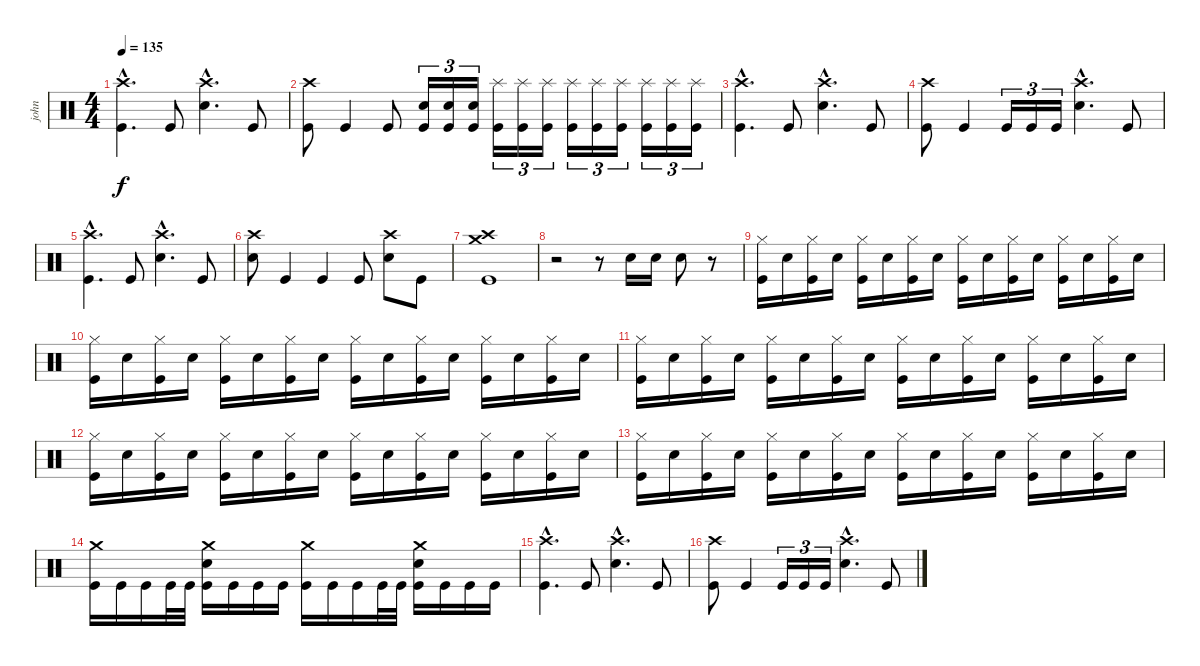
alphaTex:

\track ("john" "john") {instrument percussion}
\staff {score}
\articulation defaults
\ts (4 4)
\tempo 135
\clef neutral
\ks c
("Kick (hit)"{hac} "Crash high (hit)"{hac}).4{d dy f} "Kick (hit)".8 ("Snare (hit) 2"{hac} "Crash high (hit)"{hac}).4{d} "Kick (hit)".8 |
("Kick (hit)" "Crash high (hit)").8 "Kick (hit)".4 "Kick (hit)".8 ("Kick (hit)" "Snare (hit) 2").16{tu (3 2)} ("Kick (hit)" "Snare (hit) 2").16{tu (3 2)} ("Kick (hit)" "Snare (hit) 2").16{tu (3 2)} ("Kick (hit)" "Splash (hit)").16{tu (3 2)} ("Kick (hit)" "Splash (hit)").16{tu (3 2)} ("Kick (hit)" "Splash (hit)").16{tu (3 2)} ("Kick (hit)" "Splash (hit)").16{tu (3 2)} ("Kick (hit)" "Splash (hit)").16{tu (3 2)} ("Kick (hit)" "Splash (hit)").16{tu (3 2)} ("Kick (hit)" "Splash (hit)").16{tu (3 2)} ("Kick (hit)" "Splash (hit)").16{tu (3 2)} ("Kick (hit)" "Splash (hit)").16{tu (3 2)} |
("Kick (hit)"{hac} "Crash high (hit)"{hac}).4{d} "Kick (hit)".8 ("Snare (hit) 2"{hac} "Crash high (hit)"{hac}).4{d} "Kick (hit)".8 |
("Kick (hit)" "Crash high (hit)").8 "Kick (hit)".4 "Kick (hit)".16{tu (3 2)} "Kick (hit)".16{tu (3 2)} "Kick (hit)".16{tu (3 2)} ("Snare (hit) 2"{hac} "Crash high (hit)"{hac}).4{d} "Kick (hit)".8 |
("Kick (hit)"{hac} "Crash high (hit)"{hac}).4{d} "Kick (hit)".8 ("Snare (hit) 2"{hac} "Crash high (hit)"{hac}).4{d} "Kick (hit)".8 |
("Crash high (hit)" "Snare (hit) 2").8 "Kick (hit)".4 "Kick (hit)".4 "Kick (hit)".8 ("Crash high (hit)" "Snare (hit) 2").8 "Kick (hit)".8 |
("Crash medium (hit)" "Crash high (hit)" "Kick (hit)").1 |
r.2 r.8 "Snare (hit) 2".16 "Snare (hit) 2".16 "Snare (hit) 2".8 r.8 |
("Kick (hit)" "Hi-Hat (closed)").16 "Snare (hit) 2".16 ("Kick (hit)" "Hi-Hat (closed)").16 "Snare (hit) 2".16 ("Kick (hit)" "Hi-Hat (closed)").16 "Snare (hit) 2".16 ("Kick (hit)" "Hi-Hat (closed)").16 "Snare (hit) 2".16 ("Kick (hit)" "Hi-Hat (closed)").16 "Snare (hit) 2".16 ("Kick (hit)" "Hi-Hat (closed)").16 "Snare (hit) 2".16 ("Kick (hit)" "Hi-Hat (closed)").16 "Snare (hit) 2".16 ("Kick (hit)" "Hi-Hat (closed)").16 "Snare (hit) 2".16 |
("Kick (hit)" "Hi-Hat (closed)").16 "Snare (hit) 2".16 ("Kick (hit)" "Hi-Hat (closed)").16 "Snare (hit) 2".16 ("Kick (hit)" "Hi-Hat (closed)").16 "Snare (hit) 2".16 ("Kick (hit)" "Hi-Hat (closed)").16 "Snare (hit) 2".16 ("Kick (hit)" "Hi-Hat (closed)").16 "Snare (hit) 2".16 ("Kick (hit)" "Hi-Hat (closed)").16 "Snare (hit) 2".16 ("Kick (hit)" "Hi-Hat (closed)").16 "Snare (hit) 2".16 ("Kick (hit)" "Hi-Hat (closed)").16 "Snare (hit) 2".16 |
("Kick (hit)" "Hi-Hat (closed)").16 "Snare (hit) 2".16 ("Kick (hit)" "Hi-Hat (closed)").16 "Snare (hit) 2".16 ("Kick (hit)" "Hi-Hat (closed)").16 "Snare (hit) 2".16 ("Kick (hit)" "Hi-Hat (closed)").16 "Snare (hit) 2".16 ("Kick (hit)" "Hi-Hat (closed)").16 "Snare (hit) 2".16 ("Kick (hit)" "Hi-Hat (closed)").16 "Snare (hit) 2".16 ("Kick (hit)" "Hi-Hat (closed)").16 "Snare (hit) 2".16 ("Kick (hit)" "Hi-Hat (closed)").16 "Snare (hit) 2".16 |
("Kick (hit)" "Hi-Hat (closed)").16 "Snare (hit) 2".16 ("Kick (hit)" "Hi-Hat (closed)").16 "Snare (hit) 2".16 ("Kick (hit)" "Hi-Hat (closed)").16 "Snare (hit) 2".16 ("Kick (hit)" "Hi-Hat (closed)").16 "Snare (hit) 2".16 ("Kick (hit)" "Hi-Hat (closed)").16 "Snare (hit) 2".16 ("Kick (hit)" "Hi-Hat (closed)").16 "Snare (hit) 2".16 ("Kick (hit)" "Hi-Hat (closed)").16 "Snare (hit) 2".16 ("Kick (hit)" "Hi-Hat (closed)").16 "Snare (hit) 2".16 |
("Kick (hit)" "Hi-Hat (closed)").16 "Snare (hit) 2".16 ("Kick (hit)" "Hi-Hat (closed)").16 "Snare (hit) 2".16 ("Kick (hit)" "Hi-Hat (closed)").16 "Snare (hit) 2".16 ("Kick (hit)" "Hi-Hat (closed)").16 "Snare (hit) 2".16 ("Kick (hit)" "Hi-Hat (closed)").16 "Snare (hit) 2".16 ("Kick (hit)" "Hi-Hat (closed)").16 "Snare (hit) 2".16 ("Kick (hit)" "Hi-Hat (closed)").16 "Snare (hit) 2".16 ("Kick (hit)" "Hi-Hat (closed)").16 "Snare (hit) 2".16 |
("Kick (hit)" "Crash medium (hit)").16 "Kick (hit)".16 "Kick (hit)".16 "Kick (hit)".32 "Kick (hit)".32 ("Kick (hit)" "Snare (hit) 2" "Crash medium (hit)").16 "Kick (hit)".16 "Kick (hit)".16 "Kick (hit)".16 ("Kick (hit)" "Crash medium (hit)").16 "Kick (hit)".16 "Kick (hit)".16 "Kick (hit)".32 "Kick (hit)".32 ("Kick (hit)" "Snare (hit) 2" "Crash medium (hit)").16 "Kick (hit)".16 "Kick (hit)".16 "Kick (hit)".16 |
("Kick (hit)"{hac} "Crash high (hit)"{hac}).4{d} "Kick (hit)".8 ("Snare (hit) 2"{hac} "Crash high (hit)"{hac}).4{d} "Kick (hit)".8 |
("Kick (hit)" "Crash high (hit)").8 "Kick (hit)".4 "Kick (hit)".16{tu (3 2)} "Kick (hit)".16{tu (3 2)} "Kick (hit)".16{tu (3 2)} ("Snare (hit) 2"{hac} "Crash high (hit)"{hac}).4{d} "Kick (hit)".8
